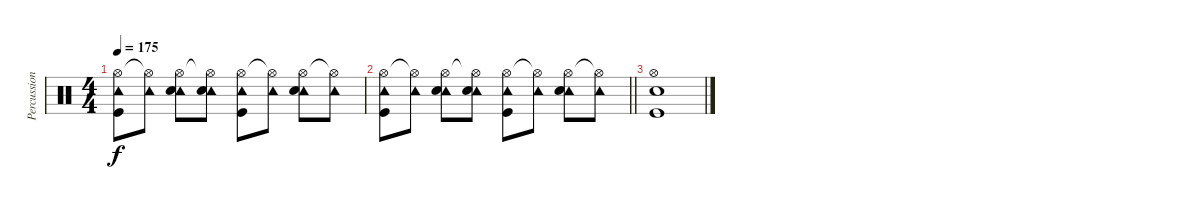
\track ("Percussion" "Percussion") {instrument percussion}
\staff {score}
\articulation defaults
\ts (4 4)
\tempo 175
\clef neutral
\ks c
("Hi-Hat (open)" "Tambourine (hit)" "Kick (hit)").8{dy f} ("Hi-Hat (open)"{t} "Tambourine (hit)").8 ("Hi-Hat (open)" "Tambourine (hit)" "Snare (hit) 2").8 ("Hi-Hat (open)"{t} "Tambourine (hit)" "Snare (hit) 2").8 ("Hi-Hat (open)" "Tambourine (hit)" "Kick (hit)").8 ("Hi-Hat (open)"{t} "Tambourine (hit)").8 ("Hi-Hat (open)" "Tambourine (hit)" "Snare (hit) 2").8 ("Hi-Hat (open)"{t} "Tambourine (hit)").8 |
\barLineRight lightlight
("Hi-Hat (open)" "Tambourine (hit)" "Kick (hit)").8 ("Hi-Hat (open)"{t} "Tambourine (hit)").8 ("Hi-Hat (open)" "Tambourine (hit)" "Snare (hit) 2").8 ("Hi-Hat (open)"{t} "Tambourine (hit)" "Snare (hit) 2").8 ("Hi-Hat (open)" "Tambourine (hit)" "Kick (hit)").8 ("Hi-Hat (open)"{t} "Tambourine (hit)").8 ("Hi-Hat (open)" "Tambourine (hit)" "Snare (hit) 2").8 ("Hi-Hat (open)"{t} "Tambourine (hit)").8 |
("Hi-Hat (open)" "Snare (hit) 2" "Kick (hit)").1
